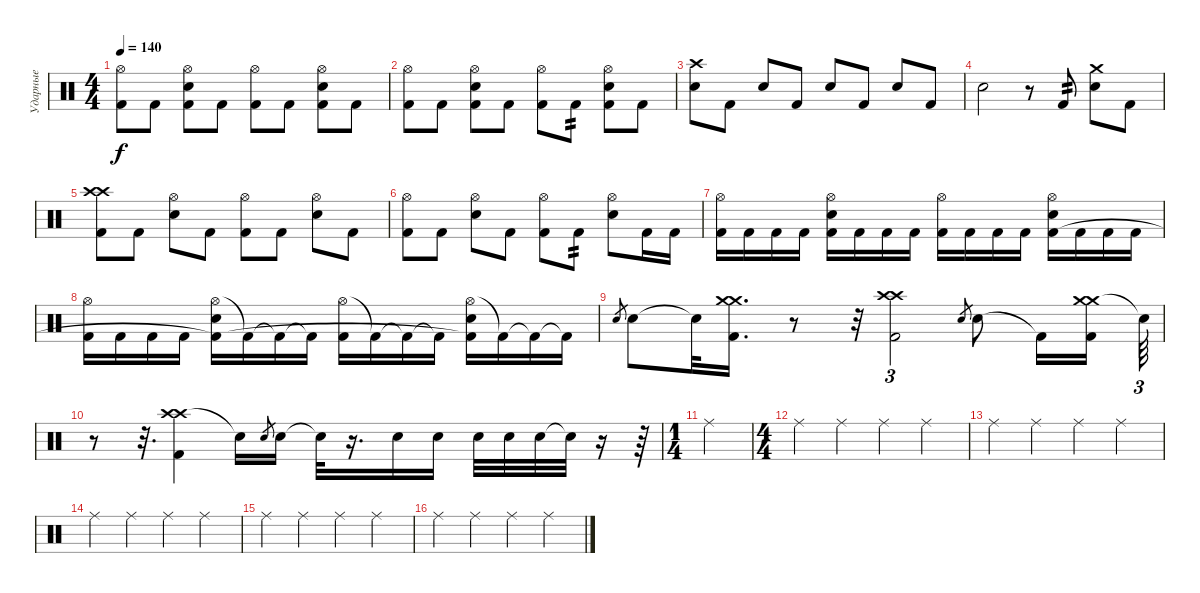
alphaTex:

\track ("Ударные" "Ударные") {instrument percussion}
\staff {score}
\articulation defaults
\ts (4 4)
\tempo 140
\clef neutral
\ks c
("Hi-Hat (open)" "Kick (hit) 2").8{dy f} "Kick (hit) 2".8 ("Hi-Hat (open)" "Electric Snare (hit)" "Kick (hit) 2").8 "Kick (hit) 2".8 ("Hi-Hat (open)" "Kick (hit) 2").8 "Kick (hit) 2".8 ("Hi-Hat (open)" "Electric Snare (hit)" "Kick (hit) 2").8 "Kick (hit) 2".8 |
("Hi-Hat (open)" "Kick (hit) 2").8 "Kick (hit) 2".8 ("Hi-Hat (open)" "Electric Snare (hit)" "Kick (hit) 2").8 "Kick (hit) 2".8 ("Hi-Hat (open)" "Kick (hit) 2").8 "Kick (hit) 2".8{tp 2} ("Hi-Hat (open)" "Electric Snare (hit)" "Kick (hit) 2").8 "Kick (hit) 2".8 |
("Crash high (hit)" "Electric Snare (hit)").8 "Kick (hit) 2".8 "Electric Snare (hit)".8 "Kick (hit) 2".8 "Electric Snare (hit)".8 "Kick (hit) 2".8 "Electric Snare (hit)".8 "Kick (hit) 2".8 |
"Electric Snare (hit)".2 r.8 "Kick (hit) 2".8{tp 2} ("Crash medium (hit)" "Electric Snare (hit)").8 "Kick (hit) 2".8 |
("Crash high (hit)" "Crash high (hit)" "Kick (hit) 2").8 "Kick (hit) 2".8 ("Hi-Hat (open)" "Electric Snare (hit)").8 "Kick (hit) 2".8 ("Hi-Hat (open)" "Kick (hit) 2").8 "Kick (hit) 2".8 ("Hi-Hat (open)" "Electric Snare (hit)").8 "Kick (hit) 2".8 |
("Hi-Hat (open)" "Kick (hit) 2").8 "Kick (hit) 2".8 ("Hi-Hat (open)" "Electric Snare (hit)").8 "Kick (hit) 2".8 ("Hi-Hat (open)" "Kick (hit) 2").8 "Kick (hit) 2".8{tp 2} ("Hi-Hat (open)" "Electric Snare (hit)").8 "Kick (hit) 2".16 "Kick (hit) 2".16 |
("Hi-Hat (open)" "Kick (hit) 2").16 "Kick (hit) 2".16 "Kick (hit) 2".16 "Kick (hit) 2".16 ("Hi-Hat (open)" "Electric Snare (hit)" "Kick (hit) 2").16 "Kick (hit) 2".16 "Kick (hit) 2".16 "Kick (hit) 2".16 ("Hi-Hat (open)" "Kick (hit) 2").16 "Kick (hit) 2".16 "Kick (hit) 2".16 "Kick (hit) 2".16 ("Electric Snare (hit)" "Hi-Hat (open)" "Kick (hit) 2").16 "Kick (hit) 2".16 "Kick (hit) 2".16 "Kick (hit) 2".16 |
("Hi-Hat (open)" "Kick (hit) 2").16 "Kick (hit) 2".16 "Kick (hit) 2".16 "Kick (hit) 2".16 ("Hi-Hat (open)" "Electric Snare (hit)" "Kick (hit) 2"{t}).16 "Kick (hit) 2"{t}.16 "Kick (hit) 2"{t}.16 "Kick (hit) 2"{t}.16 ("Hi-Hat (open)" "Kick (hit) 2").16 "Kick (hit) 2"{t}.16 "Kick (hit) 2"{t}.16 "Kick (hit) 2"{t}.16 ("Hi-Hat (open)" "Electric Snare (hit)" "Kick (hit) 2"{t}).16 "Kick (hit) 2"{t}.16 "Kick (hit) 2"{t}.16 "Kick (hit) 2"{t}.16 |
"Electric Snare (hit)".8{gr} "Electric Snare (hit)".8 "Snare (hit)"{t}.32 ("Crash medium (hit)" "Crash medium (hit)" "Kick (hit) 2").16{d} r.8 r.32 ("Crash high (hit)" "Crash high (hit)" "Kick (hit) 2").2{tu (3 2)} "Electric Snare (hit)".8{gr} "Electric Snare (hit)".8 "Kick (hit) 2"{t}.16 ("Crash medium (hit)" "Crash medium (hit)" "Kick (hit) 2").16{beam splitsecondary} "Snare (hit)"{t}.64{tu (3 2)} |
r.8 r.32{d} ("Crash high (hit)" "Crash high (hit)" "Kick (hit) 2").4 "Snare (hit)"{t}.16 "Electric Snare (hit)".8{gr} "Electric Snare (hit)".16 "Snare (hit)"{t}.32 r.16{d} "Electric Snare (hit)".16 "Electric Snare (hit)".16 "Electric Snare (hit)".32 "Electric Snare (hit)".32 "Electric Snare (hit)".32 "Snare (hit)"{t}.32 r.16 r.64 |
\ts (1 4)
"Ride (middle)".4 |
\ts (4 4)
"Ride (middle)".4 "Ride (middle)".4 "Ride (middle)".4 "Ride (middle)".4 |
"Ride (middle)".4 "Ride (middle)".4 "Ride (middle)".4 "Ride (middle)".4 |
"Ride (middle)".4 "Ride (middle)".4 "Ride (middle)".4 "Ride (middle)".4 |
"Ride (middle)".4 "Ride (middle)".4 "Ride (middle)".4 "Ride (middle)".4 |
"Ride (middle)".4 "Ride (middle)".4 "Ride (middle)".4 "Ride (middle)".4
